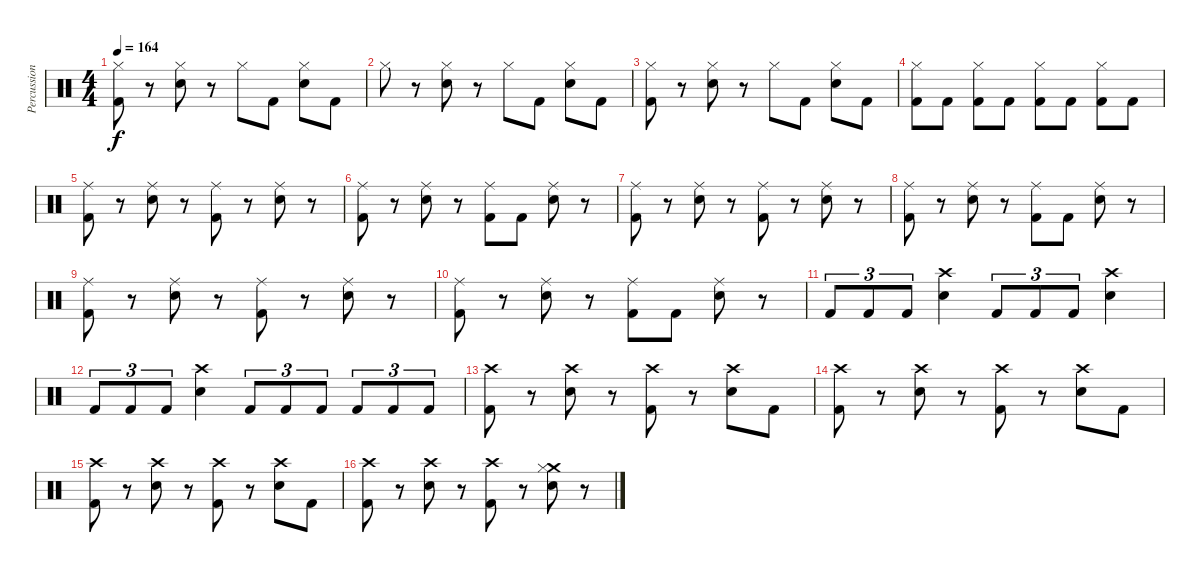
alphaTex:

\track ("Percussion" "Percussion") {instrument percussion}
\staff {score}
\articulation defaults
\ts (4 4)
\tempo 164
\clef neutral
\ks c
("Hi-Hat (closed)" "Kick (hit) 2").8{dy f} r.8 ("Hi-Hat (closed)" "Electric Snare (hit)").8 r.8 "Hi-Hat (closed)".8 "Kick (hit) 2".8 ("Hi-Hat (closed)" "Electric Snare (hit)").8 "Kick (hit) 2".8 |
"Hi-Hat (closed)".8 r.8 ("Hi-Hat (closed)" "Electric Snare (hit)").8 r.8 "Hi-Hat (closed)".8 "Kick (hit) 2".8 ("Hi-Hat (closed)" "Electric Snare (hit)").8 "Kick (hit) 2".8 |
("Hi-Hat (closed)" "Kick (hit) 2").8 r.8 ("Hi-Hat (closed)" "Electric Snare (hit)").8 r.8 "Hi-Hat (closed)".8 "Kick (hit) 2".8 ("Hi-Hat (closed)" "Electric Snare (hit)").8 "Kick (hit) 2".8 |
("Hi-Hat (closed)" "Kick (hit) 2").8 "Kick (hit) 2".8 ("Hi-Hat (closed)" "Kick (hit) 2").8 "Kick (hit) 2".8 ("Hi-Hat (closed)" "Kick (hit) 2").8 "Kick (hit) 2".8 ("Hi-Hat (closed)" "Kick (hit) 2").8 "Kick (hit) 2".8 |
("Ride (middle)" "Kick (hit) 2").8 r.8 ("Ride (middle)" "Electric Snare (hit)").8 r.8 ("Ride (middle)" "Kick (hit) 2").8 r.8 ("Ride (middle)" "Electric Snare (hit)").8 r.8 |
("Ride (middle)" "Kick (hit) 2").8 r.8 ("Ride (middle)" "Electric Snare (hit)").8 r.8 ("Ride (middle)" "Kick (hit) 2").8 "Kick (hit) 2".8 ("Ride (middle)" "Electric Snare (hit)").8 r.8 |
("Ride (middle)" "Kick (hit) 2").8 r.8 ("Ride (middle)" "Electric Snare (hit)").8 r.8 ("Ride (middle)" "Kick (hit) 2").8 r.8 ("Ride (middle)" "Electric Snare (hit)").8 r.8 |
("Ride (middle)" "Kick (hit) 2").8 r.8 ("Ride (middle)" "Electric Snare (hit)").8 r.8 ("Ride (middle)" "Kick (hit) 2").8 "Kick (hit) 2".8 ("Ride (middle)" "Electric Snare (hit)").8 r.8 |
("Ride (middle)" "Kick (hit) 2").8 r.8 ("Ride (middle)" "Electric Snare (hit)").8 r.8 ("Ride (middle)" "Kick (hit) 2").8 r.8 ("Ride (middle)" "Electric Snare (hit)").8 r.8 |
("Ride (middle)" "Kick (hit) 2").8 r.8 ("Ride (middle)" "Electric Snare (hit)").8 r.8 ("Ride (middle)" "Kick (hit) 2").8 "Kick (hit) 2".8 ("Ride (middle)" "Electric Snare (hit)").8 r.8 |
"Kick (hit) 2".8{tu (3 2)} "Kick (hit) 2".8{tu (3 2)} "Kick (hit) 2".8{tu (3 2)} ("Crash high (hit)" "Electric Snare (hit)").4 "Kick (hit) 2".8{tu (3 2)} "Kick (hit) 2".8{tu (3 2)} "Kick (hit) 2".8{tu (3 2)} ("Crash high (hit)" "Electric Snare (hit)").4 |
"Kick (hit) 2".8{tu (3 2)} "Kick (hit) 2".8{tu (3 2)} "Kick (hit) 2".8{tu (3 2)} ("Crash high (hit)" "Electric Snare (hit)").4 "Kick (hit) 2".8{tu (3 2)} "Kick (hit) 2".8{tu (3 2)} "Kick (hit) 2".8{tu (3 2)} "Kick (hit) 2".8{tu (3 2)} "Kick (hit) 2".8{tu (3 2)} "Kick (hit) 2".8{tu (3 2)} |
("Crash high (hit)" "Kick (hit) 2").8 r.8 ("Crash high (hit)" "Electric Snare (hit)").8 r.8 ("Crash high (hit)" "Kick (hit) 2").8 r.8 ("Crash high (hit)" "Electric Snare (hit)").8 "Kick (hit) 2".8 |
("Crash high (hit)" "Kick (hit) 2").8 r.8 ("Crash high (hit)" "Electric Snare (hit)").8 r.8 ("Crash high (hit)" "Kick (hit) 2").8 r.8 ("Crash high (hit)" "Electric Snare (hit)").8 "Kick (hit) 2".8 |
("Crash high (hit)" "Kick (hit) 2").8 r.8 ("Crash high (hit)" "Electric Snare (hit)").8 r.8 ("Crash high (hit)" "Kick (hit) 2").8 r.8 ("Crash high (hit)" "Electric Snare (hit)").8 "Kick (hit) 2".8 |
("Crash high (hit)" "Kick (hit) 2").8 r.8 ("Crash high (hit)" "Electric Snare (hit)").8 r.8 ("Crash high (hit)" "Kick (hit) 2").8 r.8 ("Crash medium (hit)" "Hi-Hat (closed)" "Electric Snare (hit)").8 r.8
